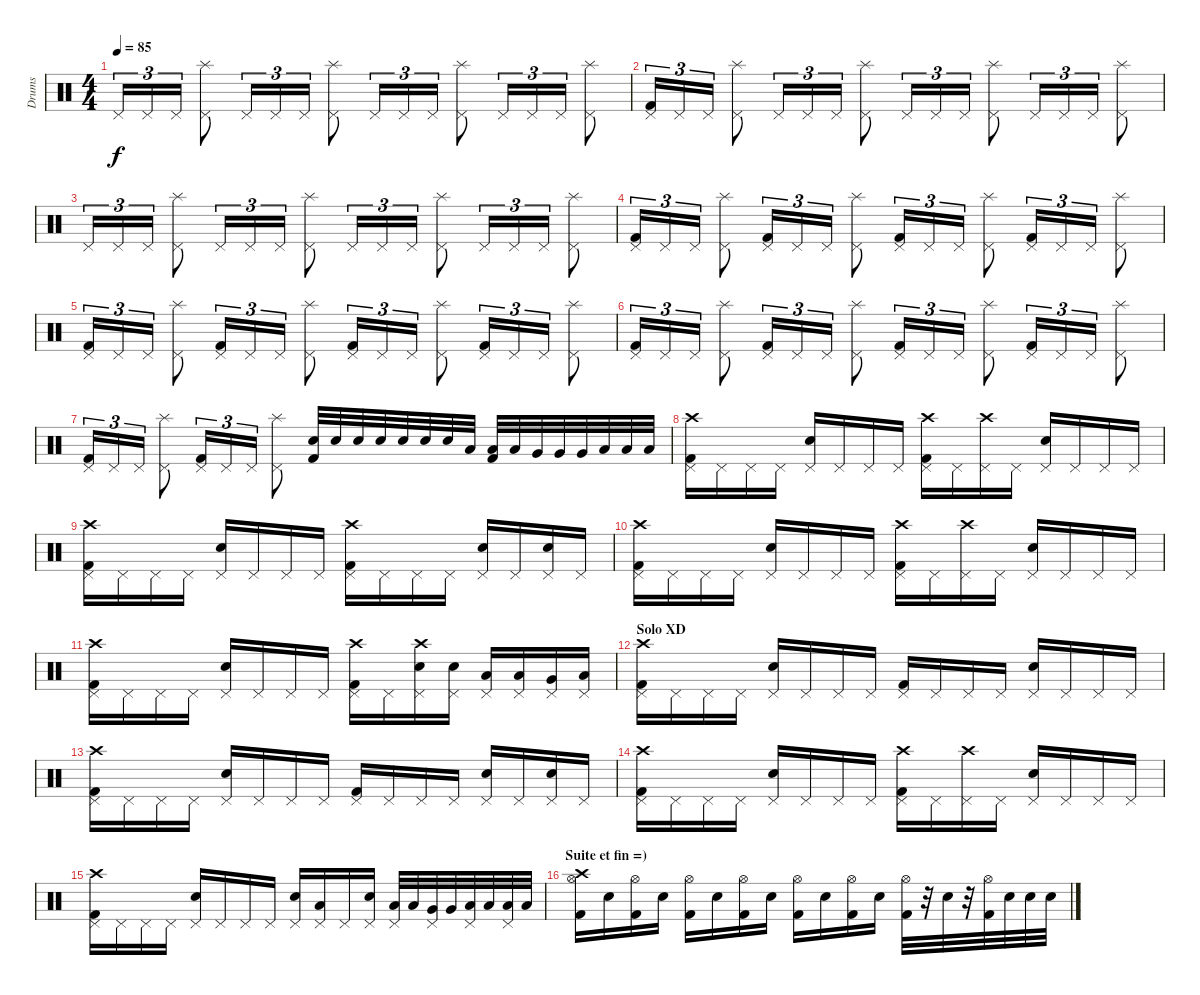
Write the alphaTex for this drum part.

\track ("Drums" "Drums") {instrument percussion}
\staff {score}
\articulation defaults
\ts (4 4)
\tempo 85
\clef neutral
\ks c "Pedal Hi-Hat (hit)".16{tu (3 2) dy f} "Pedal Hi-Hat (hit)".16{tu (3 2)} "Pedal Hi-Hat (hit)".16{tu (3 2)}
("Splash (hit)" "Pedal Hi-Hat (hit)").8 "Pedal Hi-Hat (hit)".16{tu (3 2)} "Pedal Hi-Hat (hit)".16{tu (3 2)} "Pedal Hi-Hat (hit)".16{tu (3 2)} ("Splash (hit)" "Pedal Hi-Hat (hit)").8 "Pedal Hi-Hat (hit)".16{tu (3 2)} "Pedal Hi-Hat (hit)".16{tu (3 2)} "Pedal Hi-Hat (hit)".16{tu (3 2)} ("Splash (hit)" "Pedal Hi-Hat (hit)").8 "Pedal Hi-Hat (hit)".16{tu (3 2)} "Pedal Hi-Hat (hit)".16{tu (3 2)} "Pedal Hi-Hat (hit)".16{tu (3 2)} ("Splash (hit)" "Pedal Hi-Hat (hit)").8 |
("Pedal Hi-Hat (hit)" "Kick (hit) 2").16{tu (3 2)} "Pedal Hi-Hat (hit)".16{tu (3 2)} "Pedal Hi-Hat (hit)".16{tu (3 2)} ("Splash (hit)" "Pedal Hi-Hat (hit)").8 "Pedal Hi-Hat (hit)".16{tu (3 2)} "Pedal Hi-Hat (hit)".16{tu (3 2)} "Pedal Hi-Hat (hit)".16{tu (3 2)} ("Splash (hit)" "Pedal Hi-Hat (hit)").8 "Pedal Hi-Hat (hit)".16{tu (3 2)} "Pedal Hi-Hat (hit)".16{tu (3 2)} "Pedal Hi-Hat (hit)".16{tu (3 2)} ("Splash (hit)" "Pedal Hi-Hat (hit)").8 "Pedal Hi-Hat (hit)".16{tu (3 2)} "Pedal Hi-Hat (hit)".16{tu (3 2)} "Pedal Hi-Hat (hit)".16{tu (3 2)} ("Splash (hit)" "Pedal Hi-Hat (hit)").8 |
"Pedal Hi-Hat (hit)".16{tu (3 2)} "Pedal Hi-Hat (hit)".16{tu (3 2)} "Pedal Hi-Hat (hit)".16{tu (3 2)} ("Splash (hit)" "Pedal Hi-Hat (hit)").8 "Pedal Hi-Hat (hit)".16{tu (3 2)} "Pedal Hi-Hat (hit)".16{tu (3 2)} "Pedal Hi-Hat (hit)".16{tu (3 2)} ("Splash (hit)" "Pedal Hi-Hat (hit)").8 "Pedal Hi-Hat (hit)".16{tu (3 2)} "Pedal Hi-Hat (hit)".16{tu (3 2)} "Pedal Hi-Hat (hit)".16{tu (3 2)} ("Splash (hit)" "Pedal Hi-Hat (hit)").8 "Pedal Hi-Hat (hit)".16{tu (3 2)} "Pedal Hi-Hat (hit)".16{tu (3 2)} "Pedal Hi-Hat (hit)".16{tu (3 2)} ("Splash (hit)" "Pedal Hi-Hat (hit)").8 |
("Pedal Hi-Hat (hit)" "Kick (hit) 2").16{tu (3 2)} "Pedal Hi-Hat (hit)".16{tu (3 2)} "Pedal Hi-Hat (hit)".16{tu (3 2)} ("Splash (hit)" "Pedal Hi-Hat (hit)").8 ("Pedal Hi-Hat (hit)" "Kick (hit) 2").16{tu (3 2)} "Pedal Hi-Hat (hit)".16{tu (3 2)} "Pedal Hi-Hat (hit)".16{tu (3 2)} ("Splash (hit)" "Pedal Hi-Hat (hit)").8 ("Pedal Hi-Hat (hit)" "Kick (hit) 2").16{tu (3 2)} "Pedal Hi-Hat (hit)".16{tu (3 2)} "Pedal Hi-Hat (hit)".16{tu (3 2)} ("Splash (hit)" "Pedal Hi-Hat (hit)").8 ("Pedal Hi-Hat (hit)" "Kick (hit) 2").16{tu (3 2)} "Pedal Hi-Hat (hit)".16{tu (3 2)} "Pedal Hi-Hat (hit)".16{tu (3 2)} ("Splash (hit)" "Pedal Hi-Hat (hit)").8 |
("Pedal Hi-Hat (hit)" "Kick (hit) 2").16{tu (3 2)} "Pedal Hi-Hat (hit)".16{tu (3 2)} "Pedal Hi-Hat (hit)".16{tu (3 2)} ("Splash (hit)" "Pedal Hi-Hat (hit)").8 ("Pedal Hi-Hat (hit)" "Kick (hit) 2").16{tu (3 2)} "Pedal Hi-Hat (hit)".16{tu (3 2)} "Pedal Hi-Hat (hit)".16{tu (3 2)} ("Splash (hit)" "Pedal Hi-Hat (hit)").8 ("Pedal Hi-Hat (hit)" "Kick (hit) 2").16{tu (3 2)} "Pedal Hi-Hat (hit)".16{tu (3 2)} "Pedal Hi-Hat (hit)".16{tu (3 2)} ("Splash (hit)" "Pedal Hi-Hat (hit)").8 ("Pedal Hi-Hat (hit)" "Kick (hit) 2").16{tu (3 2)} "Pedal Hi-Hat (hit)".16{tu (3 2)} "Pedal Hi-Hat (hit)".16{tu (3 2)} ("Splash (hit)" "Pedal Hi-Hat (hit)").8 |
("Pedal Hi-Hat (hit)" "Kick (hit) 2").16{tu (3 2)} "Pedal Hi-Hat (hit)".16{tu (3 2)} "Pedal Hi-Hat (hit)".16{tu (3 2)} ("Splash (hit)" "Pedal Hi-Hat (hit)").8 ("Pedal Hi-Hat (hit)" "Kick (hit) 2").16{tu (3 2)} "Pedal Hi-Hat (hit)".16{tu (3 2)} "Pedal Hi-Hat (hit)".16{tu (3 2)} ("Splash (hit)" "Pedal Hi-Hat (hit)").8 ("Pedal Hi-Hat (hit)" "Kick (hit) 2").16{tu (3 2)} "Pedal Hi-Hat (hit)".16{tu (3 2)} "Pedal Hi-Hat (hit)".16{tu (3 2)} ("Splash (hit)" "Pedal Hi-Hat (hit)").8 ("Pedal Hi-Hat (hit)" "Kick (hit) 2").16{tu (3 2)} "Pedal Hi-Hat (hit)".16{tu (3 2)} "Pedal Hi-Hat (hit)".16{tu (3 2)} ("Splash (hit)" "Pedal Hi-Hat (hit)").8 |
("Pedal Hi-Hat (hit)" "Kick (hit) 2").16{tu (3 2)} "Pedal Hi-Hat (hit)".16{tu (3 2)} "Pedal Hi-Hat (hit)".16{tu (3 2)} ("Splash (hit)" "Pedal Hi-Hat (hit)").8 ("Pedal Hi-Hat (hit)" "Kick (hit) 2").16{tu (3 2)} "Pedal Hi-Hat (hit)".16{tu (3 2)} "Pedal Hi-Hat (hit)".16{tu (3 2)} ("Splash (hit)" "Pedal Hi-Hat (hit)").8 ("Electric Snare (hit)" "Kick (hit) 2").32 "Electric Snare (hit)".32 "Electric Snare (hit)".32 "Electric Snare (hit)".32 "Electric Snare (hit)".32 "Electric Snare (hit)".32 "Electric Snare (hit)".32 "Low Tom (hit)".32 ("Low Tom (hit)" "Kick (hit) 2").32 "Low Tom (hit)".32 "Very Low Tom (hit)".32 "Very Low Tom (hit)".32 "Very Low Tom (hit)".32 "Low Floor Tom (hit)".32 "Low Floor Tom (hit)".32 "Low Floor Tom (hit)".32 |
("Pedal Hi-Hat (hit)" "Crash high (hit)" "Kick (hit) 2").16 "Pedal Hi-Hat (hit)".16 "Pedal Hi-Hat (hit)".16 "Pedal Hi-Hat (hit)".16 ("Pedal Hi-Hat (hit)" "Electric Snare (hit)").16 "Pedal Hi-Hat (hit)".16 "Pedal Hi-Hat (hit)".16 "Pedal Hi-Hat (hit)".16 ("Pedal Hi-Hat (hit)" "Crash high (hit)" "Kick (hit) 2").16 "Pedal Hi-Hat (hit)".16 ("Pedal Hi-Hat (hit)" "Crash high (hit)").16 "Pedal Hi-Hat (hit)".16 ("Pedal Hi-Hat (hit)" "Electric Snare (hit)").16 "Pedal Hi-Hat (hit)".16 "Pedal Hi-Hat (hit)".16 "Pedal Hi-Hat (hit)".16 |
("Pedal Hi-Hat (hit)" "Crash high (hit)" "Kick (hit) 2").16 "Pedal Hi-Hat (hit)".16 "Pedal Hi-Hat (hit)".16 "Pedal Hi-Hat (hit)".16 ("Pedal Hi-Hat (hit)" "Electric Snare (hit)").16 "Pedal Hi-Hat (hit)".16 "Pedal Hi-Hat (hit)".16 "Pedal Hi-Hat (hit)".16 ("Pedal Hi-Hat (hit)" "Crash high (hit)" "Kick (hit) 2").16 "Pedal Hi-Hat (hit)".16 "Pedal Hi-Hat (hit)".16 "Pedal Hi-Hat (hit)".16 ("Pedal Hi-Hat (hit)" "Electric Snare (hit)").16 "Pedal Hi-Hat (hit)".16 ("Pedal Hi-Hat (hit)" "Electric Snare (hit)").16 "Pedal Hi-Hat (hit)".16 |
("Pedal Hi-Hat (hit)" "Crash high (hit)" "Kick (hit) 2").16 "Pedal Hi-Hat (hit)".16 "Pedal Hi-Hat (hit)".16 "Pedal Hi-Hat (hit)".16 ("Pedal Hi-Hat (hit)" "Electric Snare (hit)").16 "Pedal Hi-Hat (hit)".16 "Pedal Hi-Hat (hit)".16 "Pedal Hi-Hat (hit)".16 ("Pedal Hi-Hat (hit)" "Crash high (hit)" "Kick (hit) 2").16 "Pedal Hi-Hat (hit)".16 ("Pedal Hi-Hat (hit)" "Crash high (hit)").16 "Pedal Hi-Hat (hit)".16 ("Pedal Hi-Hat (hit)" "Electric Snare (hit)").16 "Pedal Hi-Hat (hit)".16 "Pedal Hi-Hat (hit)".16 "Pedal Hi-Hat (hit)".16 |
("Pedal Hi-Hat (hit)" "Crash high (hit)" "Kick (hit) 2").16 "Pedal Hi-Hat (hit)".16 "Pedal Hi-Hat (hit)".16 "Pedal Hi-Hat (hit)".16 ("Pedal Hi-Hat (hit)" "Electric Snare (hit)").16 "Pedal Hi-Hat (hit)".16 "Pedal Hi-Hat (hit)".16 "Pedal Hi-Hat (hit)".16 ("Pedal Hi-Hat (hit)" "Crash high (hit)" "Kick (hit) 2").16 "Pedal Hi-Hat (hit)".16 ("Pedal Hi-Hat (hit)" "Crash high (hit)" "Electric Snare (hit)").16 ("Pedal Hi-Hat (hit)" "Electric Snare (hit)").16 ("Pedal Hi-Hat (hit)" "Low Tom (hit)").16 ("Pedal Hi-Hat (hit)" "Low Tom (hit)").16 ("Pedal Hi-Hat (hit)" "Very Low Tom (hit)").16 ("Pedal Hi-Hat (hit)" "Low Floor Tom (hit)").16 |
\section ("" "Solo XD")
("Pedal Hi-Hat (hit)" "Crash high (hit)" "Kick (hit) 2").16 "Pedal Hi-Hat (hit)".16 "Pedal Hi-Hat (hit)".16 "Pedal Hi-Hat (hit)".16 ("Pedal Hi-Hat (hit)" "Electric Snare (hit)").16 "Pedal Hi-Hat (hit)".16 "Pedal Hi-Hat (hit)".16 "Pedal Hi-Hat (hit)".16 ("Pedal Hi-Hat (hit)" "Kick (hit) 2").16 "Pedal Hi-Hat (hit)".16 "Pedal Hi-Hat (hit)".16 "Pedal Hi-Hat (hit)".16 ("Pedal Hi-Hat (hit)" "Electric Snare (hit)").16 "Pedal Hi-Hat (hit)".16 "Pedal Hi-Hat (hit)".16 "Pedal Hi-Hat (hit)".16 |
("Pedal Hi-Hat (hit)" "Crash high (hit)" "Kick (hit) 2").16 "Pedal Hi-Hat (hit)".16 "Pedal Hi-Hat (hit)".16 "Pedal Hi-Hat (hit)".16 ("Pedal Hi-Hat (hit)" "Electric Snare (hit)").16 "Pedal Hi-Hat (hit)".16 "Pedal Hi-Hat (hit)".16 "Pedal Hi-Hat (hit)".16 ("Pedal Hi-Hat (hit)" "Kick (hit) 2").16 "Pedal Hi-Hat (hit)".16 "Pedal Hi-Hat (hit)".16 "Pedal Hi-Hat (hit)".16 ("Pedal Hi-Hat (hit)" "Electric Snare (hit)").16 "Pedal Hi-Hat (hit)".16 ("Pedal Hi-Hat (hit)" "Electric Snare (hit)").16 "Pedal Hi-Hat (hit)".16 |
("Pedal Hi-Hat (hit)" "Crash high (hit)" "Kick (hit) 2").16 "Pedal Hi-Hat (hit)".16 "Pedal Hi-Hat (hit)".16 "Pedal Hi-Hat (hit)".16 ("Pedal Hi-Hat (hit)" "Electric Snare (hit)").16 "Pedal Hi-Hat (hit)".16 "Pedal Hi-Hat (hit)".16 "Pedal Hi-Hat (hit)".16 ("Pedal Hi-Hat (hit)" "Crash high (hit)" "Kick (hit) 2").16 "Pedal Hi-Hat (hit)".16 ("Pedal Hi-Hat (hit)" "Crash high (hit)").16 "Pedal Hi-Hat (hit)".16 ("Pedal Hi-Hat (hit)" "Electric Snare (hit)").16 "Pedal Hi-Hat (hit)".16 "Pedal Hi-Hat (hit)".16 "Pedal Hi-Hat (hit)".16 |
("Pedal Hi-Hat (hit)" "Crash high (hit)" "Kick (hit) 2").16 "Pedal Hi-Hat (hit)".16 "Pedal Hi-Hat (hit)".16 "Pedal Hi-Hat (hit)".16 ("Pedal Hi-Hat (hit)" "Electric Snare (hit)").16 "Pedal Hi-Hat (hit)".16 "Pedal Hi-Hat (hit)".16 "Pedal Hi-Hat (hit)".16 ("Pedal Hi-Hat (hit)" "Electric Snare (hit)").16 ("Pedal Hi-Hat (hit)" "Low Tom (hit)").16 "Pedal Hi-Hat (hit)".16 ("Pedal Hi-Hat (hit)" "Electric Snare (hit)").16 ("Pedal Hi-Hat (hit)" "Low Tom (hit)").32 "Low Tom (hit)".32 ("Pedal Hi-Hat (hit)" "Very Low Tom (hit)").32 "Very Low Tom (hit)".32 ("Pedal Hi-Hat (hit)" "Low Floor Tom (hit)").32 "Low Floor Tom (hit)".32 ("Pedal Hi-Hat (hit)" "Low Tom (hit)").32 "Low Tom (hit)".32 |
\section ("" "Suite et fin =)")
("Crash high (hit)" "Hi-Hat (open)" "Kick (hit) 2").16 "Electric Snare (hit)".16 ("Hi-Hat (open)" "Kick (hit) 2").16 "Electric Snare (hit)".16 ("Hi-Hat (open)" "Kick (hit) 2").16 "Electric Snare (hit)".16 ("Hi-Hat (open)" "Kick (hit) 2").16 "Electric Snare (hit)".16 ("Hi-Hat (open)" "Kick (hit) 2").16 "Electric Snare (hit)".16 ("Hi-Hat (open)" "Kick (hit) 2").16 "Electric Snare (hit)".16 ("Hi-Hat (open)" "Kick (hit) 2").32 r.32 "Electric Snare (hit)".32 r.32 ("Hi-Hat (open)" "Kick (hit) 2").32 "Electric Snare (hit)".32 "Electric Snare (hit)".32 "Electric Snare (hit)".32
